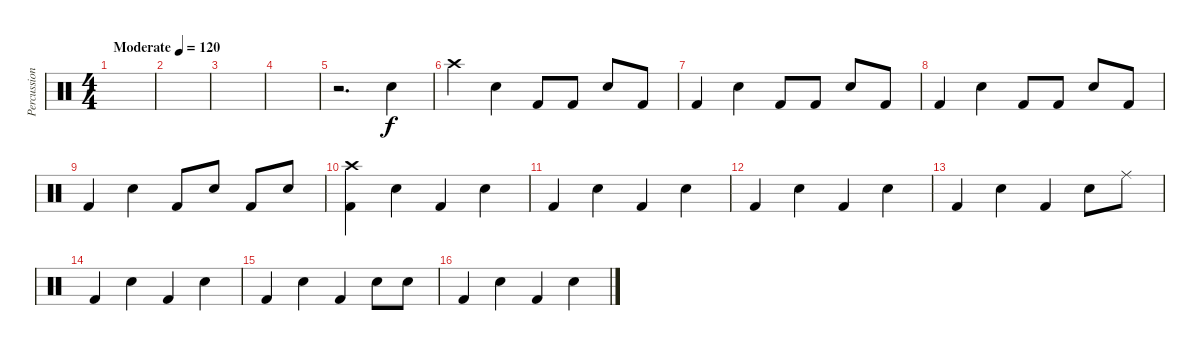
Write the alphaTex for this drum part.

\track ("Percussion" "Percussion") {instrument percussion}
\staff {score}
\articulation defaults
\ts (4 4)
\tempo (120 "Moderate")
\clef neutral
\ks c
|
|
|
|
r.2{d} "Electric Snare (hit)".4 |
"Crash high (hit)".4 "Snare (hit) 2".4 "Kick (hit) 2".8 "Kick (hit) 2".8 "Snare (hit) 2".8 "Kick (hit) 2".8 |
"Kick (hit) 2".4 "Snare (hit) 2".4 "Kick (hit) 2".8 "Kick (hit) 2".8 "Snare (hit) 2".8 "Kick (hit) 2".8 |
"Kick (hit) 2".4 "Snare (hit) 2".4 "Kick (hit) 2".8 "Kick (hit) 2".8 "Snare (hit) 2".8 "Kick (hit) 2".8 |
"Kick (hit) 2".4 "Snare (hit) 2".4 "Kick (hit) 2".8 "Snare (hit) 2".8 "Kick (hit) 2".8 "Snare (hit) 2".8 |
("Crash high (hit)" "Kick (hit) 2").4 "Electric Snare (hit)".4 "Kick (hit) 2".4 "Electric Snare (hit)".4 |
"Kick (hit) 2".4 "Electric Snare (hit)".4 "Kick (hit) 2".4 "Electric Snare (hit)".4 |
"Kick (hit) 2".4 "Electric Snare (hit)".4 "Kick (hit) 2".4 "Electric Snare (hit)".4 |
"Kick (hit) 2".4 "Electric Snare (hit)".4 "Kick (hit) 2".4 "Electric Snare (hit)".8 "Ride (middle)".8 |
"Kick (hit) 2".4 "Electric Snare (hit)".4 "Kick (hit) 2".4 "Electric Snare (hit)".4 |
"Kick (hit) 2".4 "Electric Snare (hit)".4 "Kick (hit) 2".4 "Electric Snare (hit)".8 "Electric Snare (hit)".8 |
"Kick (hit) 2".4 "Electric Snare (hit)".4 "Kick (hit) 2".4 "Electric Snare (hit)".4
